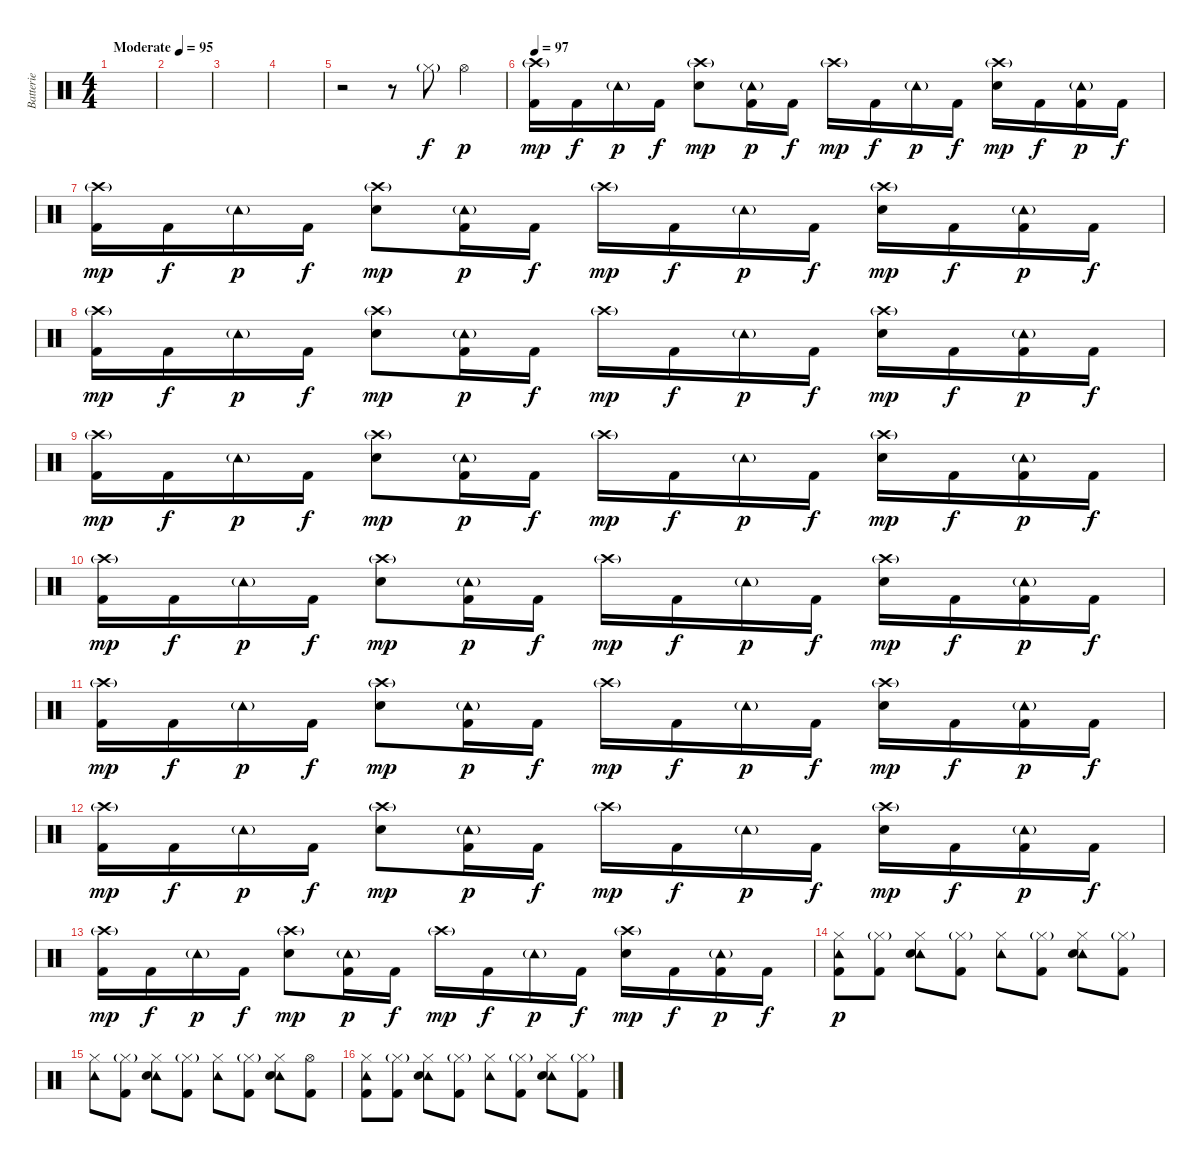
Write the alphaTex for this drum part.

\track ("Batterie" "Batterie") {instrument percussion}
\staff {score}
\articulation defaults
\ts (4 4)
\tempo (95 "Moderate")
\clef neutral
\ks c
|
|
|
|
r.2 r.8 "Hi-Hat (closed)"{g}.8 "Hi-Hat (open)".4{dy p} |
\tempo 97
("Crash high (hit)"{g} "Kick (hit) 2").16{dy mp} "Kick (hit) 2".16{dy f} "Tambourine (hit)"{g}.16{dy p} "Kick (hit) 2".16{dy f} ("Crash high (hit)"{g} "Snare (hit) 2").8{dy mp} ("Tambourine (hit)"{g} "Kick (hit) 2").16{dy p} "Kick (hit) 2".16{dy f} "Crash high (hit)"{g}.16{dy mp} "Kick (hit) 2".16{dy f} "Tambourine (hit)"{g}.16{dy p} "Kick (hit) 2".16{dy f} ("Crash high (hit)"{g} "Snare (hit) 2").16{dy mp} "Kick (hit) 2".16{dy f} ("Tambourine (hit)"{g} "Kick (hit) 2").16{dy p} "Kick (hit) 2".16{dy f} |
("Crash high (hit)"{g} "Kick (hit) 2").16{dy mp} "Kick (hit) 2".16{dy f} "Tambourine (hit)"{g}.16{dy p} "Kick (hit) 2".16{dy f} ("Crash high (hit)"{g} "Snare (hit) 2").8{dy mp} ("Tambourine (hit)"{g} "Kick (hit) 2").16{dy p} "Kick (hit) 2".16{dy f} "Crash high (hit)"{g}.16{dy mp} "Kick (hit) 2".16{dy f} "Tambourine (hit)"{g}.16{dy p} "Kick (hit) 2".16{dy f} ("Crash high (hit)"{g} "Snare (hit) 2").16{dy mp} "Kick (hit) 2".16{dy f} ("Tambourine (hit)"{g} "Kick (hit) 2").16{dy p} "Kick (hit) 2".16{dy f} |
("Crash high (hit)"{g} "Kick (hit) 2").16{dy mp} "Kick (hit) 2".16{dy f} "Tambourine (hit)"{g}.16{dy p} "Kick (hit) 2".16{dy f} ("Crash high (hit)"{g} "Snare (hit) 2").8{dy mp} ("Tambourine (hit)"{g} "Kick (hit) 2").16{dy p} "Kick (hit) 2".16{dy f} "Crash high (hit)"{g}.16{dy mp} "Kick (hit) 2".16{dy f} "Tambourine (hit)"{g}.16{dy p} "Kick (hit) 2".16{dy f} ("Crash high (hit)"{g} "Snare (hit) 2").16{dy mp} "Kick (hit) 2".16{dy f} ("Tambourine (hit)"{g} "Kick (hit) 2").16{dy p} "Kick (hit) 2".16{dy f} |
("Crash high (hit)"{g} "Kick (hit) 2").16{dy mp} "Kick (hit) 2".16{dy f} "Tambourine (hit)"{g}.16{dy p} "Kick (hit) 2".16{dy f} ("Crash high (hit)"{g} "Snare (hit) 2").8{dy mp} ("Tambourine (hit)"{g} "Kick (hit) 2").16{dy p} "Kick (hit) 2".16{dy f} "Crash high (hit)"{g}.16{dy mp} "Kick (hit) 2".16{dy f} "Tambourine (hit)"{g}.16{dy p} "Kick (hit) 2".16{dy f} ("Crash high (hit)"{g} "Snare (hit) 2").16{dy mp} "Kick (hit) 2".16{dy f} ("Tambourine (hit)"{g} "Kick (hit) 2").16{dy p} "Kick (hit) 2".16{dy f} |
("Crash high (hit)"{g} "Kick (hit) 2").16{dy mp} "Kick (hit) 2".16{dy f} "Tambourine (hit)"{g}.16{dy p} "Kick (hit) 2".16{dy f} ("Crash high (hit)"{g} "Snare (hit) 2").8{dy mp} ("Tambourine (hit)"{g} "Kick (hit) 2").16{dy p} "Kick (hit) 2".16{dy f} "Crash high (hit)"{g}.16{dy mp} "Kick (hit) 2".16{dy f} "Tambourine (hit)"{g}.16{dy p} "Kick (hit) 2".16{dy f} ("Crash high (hit)"{g} "Snare (hit) 2").16{dy mp} "Kick (hit) 2".16{dy f} ("Tambourine (hit)"{g} "Kick (hit) 2").16{dy p} "Kick (hit) 2".16{dy f} |
("Crash high (hit)"{g} "Kick (hit) 2").16{dy mp} "Kick (hit) 2".16{dy f} "Tambourine (hit)"{g}.16{dy p} "Kick (hit) 2".16{dy f} ("Crash high (hit)"{g} "Snare (hit) 2").8{dy mp} ("Tambourine (hit)"{g} "Kick (hit) 2").16{dy p} "Kick (hit) 2".16{dy f} "Crash high (hit)"{g}.16{dy mp} "Kick (hit) 2".16{dy f} "Tambourine (hit)"{g}.16{dy p} "Kick (hit) 2".16{dy f} ("Crash high (hit)"{g} "Snare (hit) 2").16{dy mp} "Kick (hit) 2".16{dy f} ("Tambourine (hit)"{g} "Kick (hit) 2").16{dy p} "Kick (hit) 2".16{dy f} |
("Crash high (hit)"{g} "Kick (hit) 2").16{dy mp} "Kick (hit) 2".16{dy f} "Tambourine (hit)"{g}.16{dy p} "Kick (hit) 2".16{dy f} ("Crash high (hit)"{g} "Snare (hit) 2").8{dy mp} ("Tambourine (hit)"{g} "Kick (hit) 2").16{dy p} "Kick (hit) 2".16{dy f} "Crash high (hit)"{g}.16{dy mp} "Kick (hit) 2".16{dy f} "Tambourine (hit)"{g}.16{dy p} "Kick (hit) 2".16{dy f} ("Crash high (hit)"{g} "Snare (hit) 2").16{dy mp} "Kick (hit) 2".16{dy f} ("Tambourine (hit)"{g} "Kick (hit) 2").16{dy p} "Kick (hit) 2".16{dy f} |
("Crash high (hit)"{g} "Kick (hit) 2").16{dy mp} "Kick (hit) 2".16{dy f} "Tambourine (hit)"{g}.16{dy p} "Kick (hit) 2".16{dy f} ("Crash high (hit)"{g} "Snare (hit) 2").8{dy mp} ("Tambourine (hit)"{g} "Kick (hit) 2").16{dy p} "Kick (hit) 2".16{dy f} "Crash high (hit)"{g}.16{dy mp} "Kick (hit) 2".16{dy f} "Tambourine (hit)"{g}.16{dy p} "Kick (hit) 2".16{dy f} ("Crash high (hit)"{g} "Snare (hit) 2").16{dy mp} "Kick (hit) 2".16{dy f} ("Tambourine (hit)"{g} "Kick (hit) 2").16{dy p} "Kick (hit) 2".16{dy f} |
("Hi-Hat (closed)" "Tambourine (hit)" "Kick (hit) 2").8{dy p} ("Hi-Hat (closed)"{g} "Kick (hit) 2").8 ("Hi-Hat (closed)" "Tambourine (hit)" "Snare (hit) 2").8 ("Hi-Hat (closed)"{g} "Kick (hit) 2").8 ("Hi-Hat (closed)" "Tambourine (hit)").8 ("Hi-Hat (closed)"{g} "Kick (hit) 2").8 ("Hi-Hat (closed)" "Tambourine (hit)" "Snare (hit) 2").8 ("Hi-Hat (closed)"{g} "Kick (hit) 2").8 |
("Hi-Hat (closed)" "Tambourine (hit)").8 ("Hi-Hat (closed)"{g} "Kick (hit) 2").8 ("Hi-Hat (closed)" "Tambourine (hit)" "Snare (hit) 2").8 ("Hi-Hat (closed)"{g} "Kick (hit) 2").8 ("Hi-Hat (closed)" "Tambourine (hit)").8 ("Hi-Hat (closed)"{g} "Kick (hit) 2").8 ("Hi-Hat (closed)" "Tambourine (hit)" "Snare (hit) 2").8 ("Hi-Hat (open)" "Kick (hit) 2").8 |
("Hi-Hat (closed)" "Tambourine (hit)" "Kick (hit) 2").8 ("Hi-Hat (closed)"{g} "Kick (hit) 2").8 ("Hi-Hat (closed)" "Tambourine (hit)" "Snare (hit) 2").8 ("Hi-Hat (closed)"{g} "Kick (hit) 2").8 ("Hi-Hat (closed)" "Tambourine (hit)").8 ("Hi-Hat (closed)"{g} "Kick (hit) 2").8 ("Hi-Hat (closed)" "Tambourine (hit)" "Snare (hit) 2").8 ("Hi-Hat (closed)"{g} "Kick (hit) 2").8
